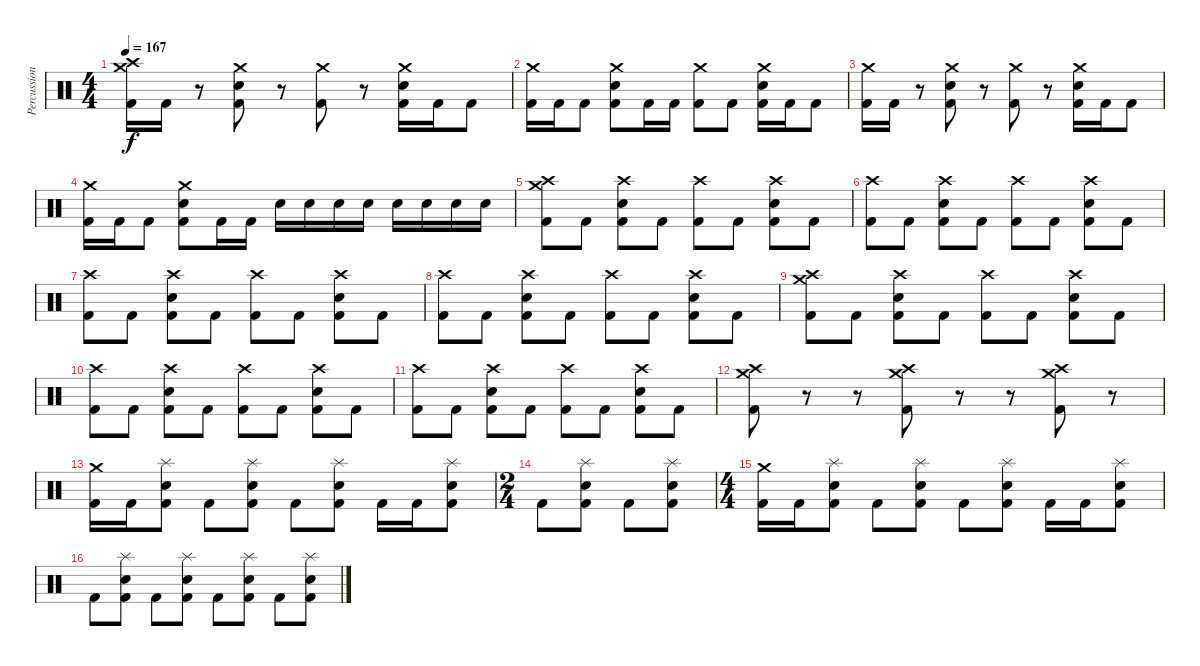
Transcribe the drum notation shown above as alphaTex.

\track ("Percussion" "Percussion") {instrument percussion}
\staff {score}
\articulation defaults
\ts (4 4)
\tempo 167
\clef neutral
\ks c
("Crash medium (hit)" "Crash high (hit)" "Kick (hit) 2").16{dy f} "Kick (hit) 2".16 r.8 ("Crash medium (hit)" "Electric Snare (hit)" "Kick (hit) 2").8 r.8 ("Crash medium (hit)" "Kick (hit) 2").8 r.8 ("Crash medium (hit)" "Electric Snare (hit)" "Kick (hit) 2").16 "Kick (hit) 2".16 "Kick (hit) 2".8 |
("Crash medium (hit)" "Kick (hit) 2").16 "Kick (hit) 2".16 "Kick (hit) 2".8 ("Crash medium (hit)" "Electric Snare (hit)" "Kick (hit) 2").8 "Kick (hit) 2".16 "Kick (hit) 2".16 ("Crash medium (hit)" "Kick (hit) 2").8 "Kick (hit) 2".8 ("Crash medium (hit)" "Electric Snare (hit)" "Kick (hit) 2").16 "Kick (hit) 2".16 "Kick (hit) 2".8 |
("Crash medium (hit)" "Kick (hit) 2").16 "Kick (hit) 2".16 r.8 ("Crash medium (hit)" "Electric Snare (hit)" "Kick (hit) 2").8 r.8 ("Crash medium (hit)" "Kick (hit) 2").8 r.8 ("Crash medium (hit)" "Electric Snare (hit)" "Kick (hit) 2").16 "Kick (hit) 2".16 "Kick (hit) 2".8 |
("Crash medium (hit)" "Kick (hit) 2").16 "Kick (hit) 2".16 "Kick (hit) 2".8 ("Crash medium (hit)" "Electric Snare (hit)" "Kick (hit) 2").8 "Kick (hit) 2".16 "Kick (hit) 2".16 "Electric Snare (hit)".16 "Electric Snare (hit)".16 "Electric Snare (hit)".16 "Electric Snare (hit)".16 "Electric Snare (hit)".16 "Electric Snare (hit)".16 "Electric Snare (hit)".16 "Electric Snare (hit)".16 |
("Crash medium (hit)" "Crash high (hit)" "Kick (hit) 2").8 "Kick (hit) 2".8 ("Crash high (hit)" "Electric Snare (hit)" "Kick (hit) 2").8 "Kick (hit) 2".8 ("Crash high (hit)" "Kick (hit) 2").8 "Kick (hit) 2".8 ("Crash high (hit)" "Electric Snare (hit)" "Kick (hit) 2").8 "Kick (hit) 2".8 |
("Crash high (hit)" "Kick (hit) 2").8 "Kick (hit) 2".8 ("Crash high (hit)" "Electric Snare (hit)" "Kick (hit) 2").8 "Kick (hit) 2".8 ("Crash high (hit)" "Kick (hit) 2").8 "Kick (hit) 2".8 ("Crash high (hit)" "Electric Snare (hit)" "Kick (hit) 2").8 "Kick (hit) 2".8 |
("Crash high (hit)" "Kick (hit) 2").8 "Kick (hit) 2".8 ("Crash high (hit)" "Electric Snare (hit)" "Kick (hit) 2").8 "Kick (hit) 2".8 ("Crash high (hit)" "Kick (hit) 2").8 "Kick (hit) 2".8 ("Crash high (hit)" "Electric Snare (hit)" "Kick (hit) 2").8 "Kick (hit) 2".8 |
("Crash high (hit)" "Kick (hit) 2").8 "Kick (hit) 2".8 ("Crash high (hit)" "Electric Snare (hit)" "Kick (hit) 2").8 "Kick (hit) 2".8 ("Crash high (hit)" "Kick (hit) 2").8 "Kick (hit) 2".8 ("Crash high (hit)" "Electric Snare (hit)" "Kick (hit) 2").8 "Kick (hit) 2".8 |
("Crash medium (hit)" "Crash high (hit)" "Kick (hit) 2").8 "Kick (hit) 2".8 ("Crash high (hit)" "Electric Snare (hit)" "Kick (hit) 2").8 "Kick (hit) 2".8 ("Crash high (hit)" "Kick (hit) 2").8 "Kick (hit) 2".8 ("Crash high (hit)" "Electric Snare (hit)" "Kick (hit) 2").8 "Kick (hit) 2".8 |
("Crash high (hit)" "Kick (hit) 2").8 "Kick (hit) 2".8 ("Crash high (hit)" "Electric Snare (hit)" "Kick (hit) 2").8 "Kick (hit) 2".8 ("Crash high (hit)" "Kick (hit) 2").8 "Kick (hit) 2".8 ("Crash high (hit)" "Electric Snare (hit)" "Kick (hit) 2").8 "Kick (hit) 2".8 |
("Crash high (hit)" "Kick (hit) 2").8 "Kick (hit) 2".8 ("Crash high (hit)" "Electric Snare (hit)" "Kick (hit) 2").8 "Kick (hit) 2".8 ("Crash high (hit)" "Kick (hit) 2").8 "Kick (hit) 2".8 ("Crash high (hit)" "Electric Snare (hit)" "Kick (hit) 2").8 "Kick (hit) 2".8 |
("Crash high (hit)" "Crash medium (hit)" "Kick (hit) 2").8 r.8 r.8 ("Crash high (hit)" "Crash medium (hit)" "Kick (hit) 2").8 r.8 r.8 ("Crash high (hit)" "Crash medium (hit)" "Kick (hit) 2").8 r.8 |
("Crash medium (hit)" "Kick (hit) 2").16 "Kick (hit) 2".16 ("Splash (hit)" "Electric Snare (hit)" "Kick (hit) 2").8 "Kick (hit) 2".8 ("Splash (hit)" "Electric Snare (hit)" "Kick (hit) 2").8 "Kick (hit) 2".8 ("Splash (hit)" "Electric Snare (hit)" "Kick (hit) 2").8 "Kick (hit) 2".16 "Kick (hit) 2".16 ("Splash (hit)" "Electric Snare (hit)" "Kick (hit) 2").8 |
\ts (2 4)
"Kick (hit) 2".8 ("Splash (hit)" "Electric Snare (hit)" "Kick (hit) 2").8 "Kick (hit) 2".8 ("Splash (hit)" "Electric Snare (hit)" "Kick (hit) 2").8 |
\ts (4 4)
("Crash medium (hit)" "Kick (hit) 2").16 "Kick (hit) 2".16 ("Splash (hit)" "Electric Snare (hit)" "Kick (hit) 2").8 "Kick (hit) 2".8 ("Splash (hit)" "Electric Snare (hit)" "Kick (hit) 2").8 "Kick (hit) 2".8 ("Splash (hit)" "Electric Snare (hit)" "Kick (hit) 2").8 "Kick (hit) 2".16 "Kick (hit) 2".16 ("Splash (hit)" "Electric Snare (hit)" "Kick (hit) 2").8 |
"Kick (hit) 2".8 ("Splash (hit)" "Electric Snare (hit)" "Kick (hit) 2").8 "Kick (hit) 2".8 ("Splash (hit)" "Electric Snare (hit)" "Kick (hit) 2").8 "Kick (hit) 2".8 ("Splash (hit)" "Electric Snare (hit)" "Kick (hit) 2").8 "Kick (hit) 2".8 ("Splash (hit)" "Electric Snare (hit)" "Kick (hit) 2").8
